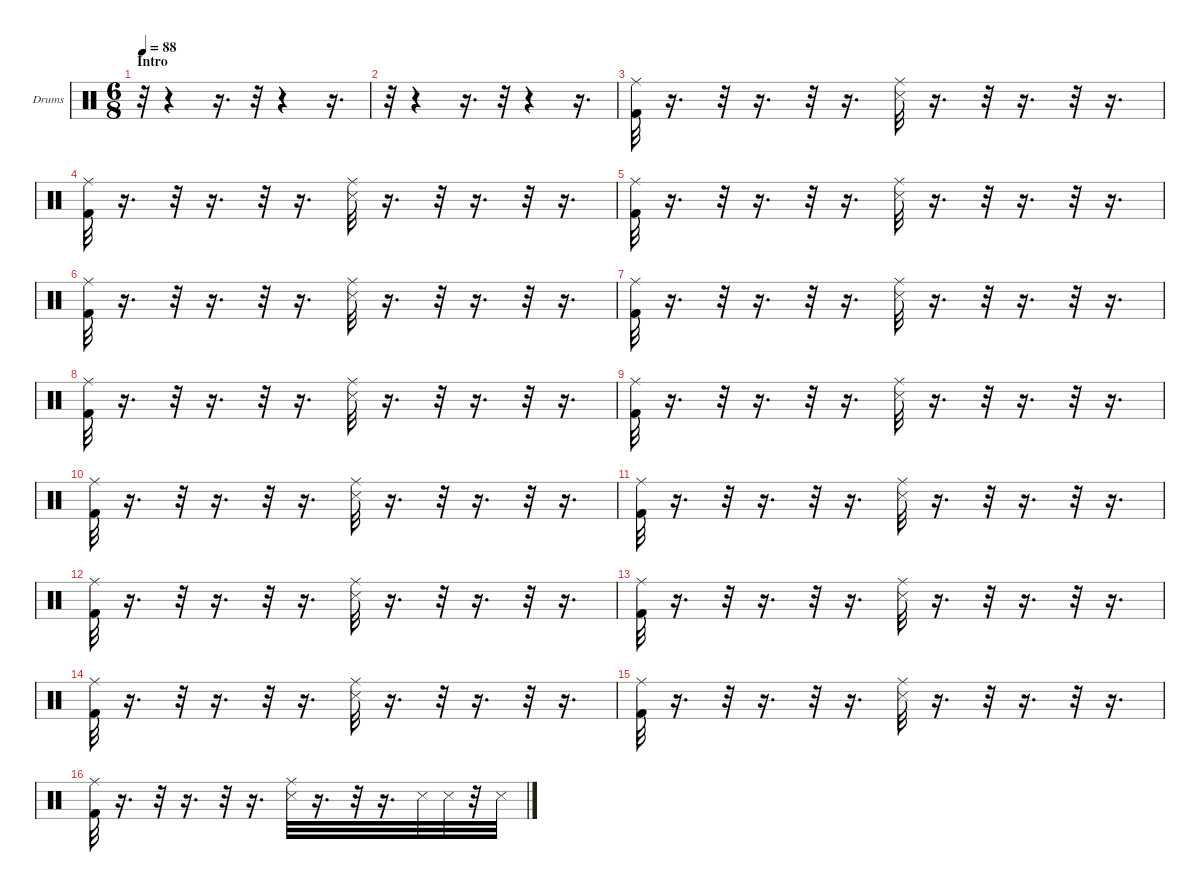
\hideDynamics
\bracketExtendMode nobrackets
\firstSystemTrackNameOrientation horizontal
\otherSystemsTrackNameOrientation horizontal
\track ("Drumkit" "Drums") {instrument percussion}
\staff {score}
\articulation defaults
\ts (6 8)
\section ("" "Intro")
\tempo 88
\clef neutral
\ks c
r.32{dy fff} r.4 r.16{d} r.32 r.4 r.16{d} |
r.32 r.4 r.16{d} r.32 r.4 r.16{d} |
("Kick (hit) 2" "Ride (middle)").32 r.16{d} r.32 r.16{d} r.32 r.16{d} ("Snare (side stick) 3" "Ride (middle)").32{dy ff} r.16{d} r.32 r.16{d} r.32 r.16{d} |
("Kick (hit) 2" "Ride (middle)").32{dy fff} r.16{d} r.32 r.16{d} r.32 r.16{d} ("Snare (side stick) 3" "Ride (middle)").32{dy ff} r.16{d} r.32 r.16{d} r.32 r.16{d} |
("Kick (hit) 2" "Ride (middle)").32{dy fff} r.16{d} r.32 r.16{d} r.32 r.16{d} ("Snare (side stick) 3" "Ride (middle)").32{dy ff} r.16{d} r.32 r.16{d} r.32 r.16{d} |
("Kick (hit) 2" "Ride (middle)").32{dy fff} r.16{d} r.32 r.16{d} r.32 r.16{d} ("Snare (side stick) 3" "Ride (middle)").32{dy ff} r.16{d} r.32 r.16{d} r.32 r.16{d} |
("Kick (hit) 2" "Ride (middle)").32{dy fff} r.16{d} r.32 r.16{d} r.32 r.16{d} ("Snare (side stick) 3" "Ride (middle)").32{dy ff} r.16{d} r.32 r.16{d} r.32 r.16{d} |
("Kick (hit) 2" "Ride (middle)").32{dy fff} r.16{d} r.32 r.16{d} r.32 r.16{d} ("Snare (side stick) 3" "Ride (middle)").32{dy ff} r.16{d} r.32 r.16{d} r.32 r.16{d} |
("Kick (hit) 2" "Ride (middle)").32{dy fff} r.16{d} r.32 r.16{d} r.32 r.16{d} ("Snare (side stick) 3" "Ride (middle)").32{dy ff} r.16{d} r.32 r.16{d} r.32 r.16{d} |
("Kick (hit) 2" "Ride (middle)").32{dy fff} r.16{d} r.32 r.16{d} r.32 r.16{d} ("Snare (side stick) 3" "Ride (middle)").32{dy ff} r.16{d} r.32 r.16{d} r.32 r.16{d} |
("Kick (hit) 2" "Ride (middle)").32{dy fff} r.16{d} r.32 r.16{d} r.32 r.16{d} ("Snare (side stick) 3" "Ride (middle)").32{dy ff} r.16{d} r.32 r.16{d} r.32 r.16{d} |
("Kick (hit) 2" "Ride (middle)").32{dy fff} r.16{d} r.32 r.16{d} r.32 r.16{d} ("Snare (side stick) 3" "Ride (middle)").32{dy ff} r.16{d} r.32 r.16{d} r.32 r.16{d} |
("Kick (hit) 2" "Ride (middle)").32{dy fff} r.16{d} r.32 r.16{d} r.32 r.16{d} ("Snare (side stick) 3" "Ride (middle)").32{dy ff} r.16{d} r.32 r.16{d} r.32 r.16{d} |
("Kick (hit) 2" "Ride (middle)").32{dy fff} r.16{d} r.32 r.16{d} r.32 r.16{d} ("Snare (side stick) 3" "Ride (middle)").32{dy ff} r.16{d} r.32 r.16{d} r.32 r.16{d} |
("Kick (hit) 2" "Ride (middle)").32{dy fff} r.16{d} r.32 r.16{d} r.32 r.16{d} ("Snare (side stick) 3" "Ride (middle)").32{dy ff} r.16{d} r.32 r.16{d} r.32 r.16{d} |
("Kick (hit) 2" "Ride (middle)").32{dy fff} r.16{d} r.32 r.16{d} r.32 r.16{d} ("Snare (side stick) 3" "Ride (middle)").32{dy ff} r.16{d} r.32 r.16{d} "Snare (side stick) 3".32{dy f} "Snare (side stick) 3".32{dy mf} r.32 "Snare (side stick) 3".32{dy f}
